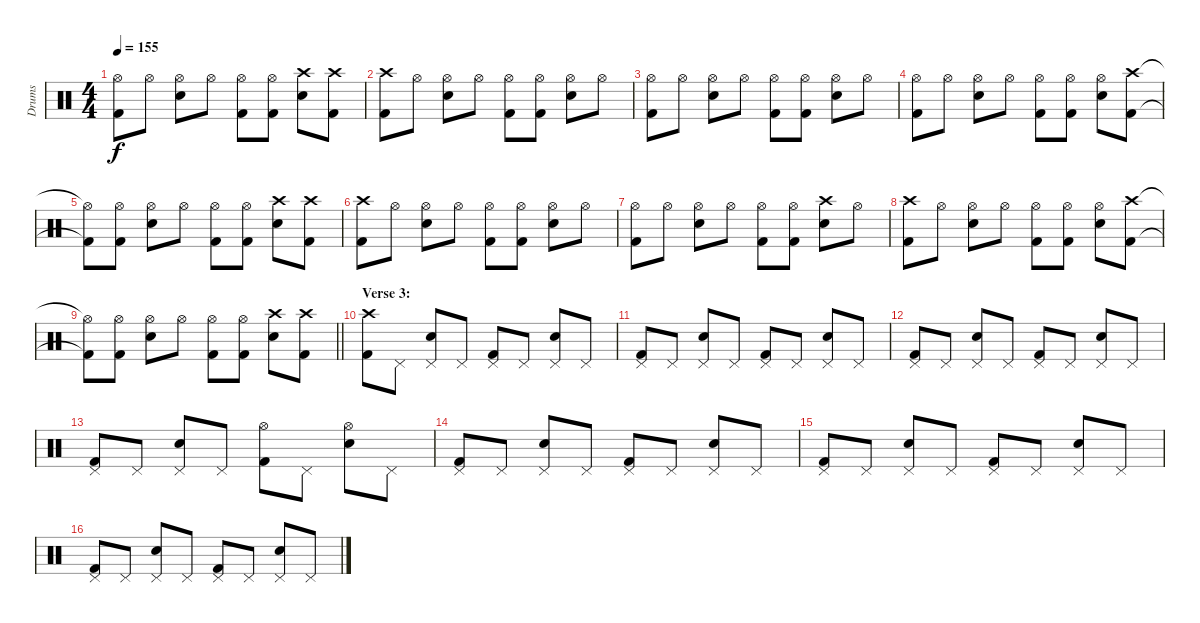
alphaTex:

\track ("Drums" "Drums") {instrument percussion}
\staff {score}
\articulation defaults
\ts (4 4)
\tempo 155
\clef neutral
\ks c
("Hi-Hat (open)" "Kick (hit) 2").8{dy f} "Hi-Hat (open)".8 ("Hi-Hat (open)" "Electric Snare (hit)").8 "Hi-Hat (open)".8 ("Hi-Hat (open)" "Kick (hit) 2").8 ("Hi-Hat (open)" "Kick (hit) 2").8 ("Crash high (hit)" "Electric Snare (hit)").8 ("Crash high (hit)" "Kick (hit) 2").8 |
("Crash high (hit)" "Kick (hit) 2").8 "Hi-Hat (open)".8 ("Hi-Hat (open)" "Electric Snare (hit)").8 "Hi-Hat (open)".8 ("Hi-Hat (open)" "Kick (hit) 2").8 ("Hi-Hat (open)" "Kick (hit) 2").8 ("Hi-Hat (open)" "Electric Snare (hit)").8 "Hi-Hat (open)".8 |
("Hi-Hat (open)" "Kick (hit) 2").8 "Hi-Hat (open)".8 ("Hi-Hat (open)" "Electric Snare (hit)").8 "Hi-Hat (open)".8 ("Hi-Hat (open)" "Kick (hit) 2").8 ("Hi-Hat (open)" "Kick (hit) 2").8 ("Hi-Hat (open)" "Electric Snare (hit)").8 "Hi-Hat (open)".8 |
("Hi-Hat (open)" "Kick (hit) 2").8 "Hi-Hat (open)".8 ("Hi-Hat (open)" "Electric Snare (hit)").8 "Hi-Hat (open)".8 ("Hi-Hat (open)" "Kick (hit) 2").8 ("Hi-Hat (open)" "Kick (hit) 2").8 ("Hi-Hat (open)" "Electric Snare (hit)").8 ("Crash high (hit)" "Kick (hit) 2").8 |
("Hi-Hat (open)"{t} "Kick (hit) 2"{t}).8 ("Hi-Hat (open)" "Kick (hit) 2").8 ("Hi-Hat (open)" "Electric Snare (hit)").8 "Hi-Hat (open)".8 ("Hi-Hat (open)" "Kick (hit) 2").8 ("Hi-Hat (open)" "Kick (hit) 2").8 ("Crash high (hit)" "Electric Snare (hit)").8 ("Crash high (hit)" "Kick (hit) 2").8 |
("Crash high (hit)" "Kick (hit) 2").8 "Hi-Hat (open)".8 ("Hi-Hat (open)" "Electric Snare (hit)").8 "Hi-Hat (open)".8 ("Hi-Hat (open)" "Kick (hit) 2").8 ("Hi-Hat (open)" "Kick (hit) 2").8 ("Hi-Hat (open)" "Electric Snare (hit)").8 "Hi-Hat (open)".8 |
("Hi-Hat (open)" "Kick (hit) 2").8 "Hi-Hat (open)".8 ("Hi-Hat (open)" "Electric Snare (hit)").8 "Hi-Hat (open)".8 ("Hi-Hat (open)" "Kick (hit) 2").8 ("Hi-Hat (open)" "Kick (hit) 2").8 ("Crash high (hit)" "Electric Snare (hit)").8 "Hi-Hat (open)".8 |
("Crash high (hit)" "Kick (hit) 2").8 "Hi-Hat (open)".8 ("Hi-Hat (open)" "Electric Snare (hit)").8 "Hi-Hat (open)".8 ("Hi-Hat (open)" "Kick (hit) 2").8 ("Hi-Hat (open)" "Kick (hit) 2").8 ("Hi-Hat (open)" "Electric Snare (hit)").8 ("Crash high (hit)" "Kick (hit) 2").8 |
\barLineRight lightlight
("Hi-Hat (open)"{t} "Kick (hit) 2"{t}).8 ("Hi-Hat (open)" "Kick (hit) 2").8 ("Hi-Hat (open)" "Electric Snare (hit)").8 "Hi-Hat (open)".8 ("Hi-Hat (open)" "Kick (hit) 2").8 ("Hi-Hat (open)" "Kick (hit) 2").8 ("Crash high (hit)" "Electric Snare (hit)").8 ("Crash high (hit)" "Kick (hit) 2").8 |
\section ("" "Verse 3:")
("Crash high (hit)" "Kick (hit) 2").8 "Pedal Hi-Hat (hit)".8 ("Pedal Hi-Hat (hit)" "Electric Snare (hit)").8 "Pedal Hi-Hat (hit)".8 ("Pedal Hi-Hat (hit)" "Kick (hit) 2").8 "Pedal Hi-Hat (hit)".8 ("Pedal Hi-Hat (hit)" "Electric Snare (hit)").8 "Pedal Hi-Hat (hit)".8 |
("Pedal Hi-Hat (hit)" "Kick (hit) 2").8 "Pedal Hi-Hat (hit)".8 ("Pedal Hi-Hat (hit)" "Electric Snare (hit)").8 "Pedal Hi-Hat (hit)".8 ("Pedal Hi-Hat (hit)" "Kick (hit) 2").8 "Pedal Hi-Hat (hit)".8 ("Pedal Hi-Hat (hit)" "Electric Snare (hit)").8 "Pedal Hi-Hat (hit)".8 |
("Pedal Hi-Hat (hit)" "Kick (hit) 2").8 "Pedal Hi-Hat (hit)".8 ("Pedal Hi-Hat (hit)" "Electric Snare (hit)").8 "Pedal Hi-Hat (hit)".8 ("Pedal Hi-Hat (hit)" "Kick (hit) 2").8 "Pedal Hi-Hat (hit)".8 ("Pedal Hi-Hat (hit)" "Electric Snare (hit)").8 "Pedal Hi-Hat (hit)".8 |
("Pedal Hi-Hat (hit)" "Kick (hit) 2").8 "Pedal Hi-Hat (hit)".8 ("Pedal Hi-Hat (hit)" "Electric Snare (hit)").8 "Pedal Hi-Hat (hit)".8 ("Hi-Hat (open)" "Kick (hit) 2").8 "Pedal Hi-Hat (hit)".8 ("Hi-Hat (open)" "Electric Snare (hit)").8 "Pedal Hi-Hat (hit)".8 |
("Pedal Hi-Hat (hit)" "Kick (hit) 2").8 "Pedal Hi-Hat (hit)".8 ("Pedal Hi-Hat (hit)" "Electric Snare (hit)").8 "Pedal Hi-Hat (hit)".8 ("Pedal Hi-Hat (hit)" "Kick (hit) 2").8 "Pedal Hi-Hat (hit)".8 ("Pedal Hi-Hat (hit)" "Electric Snare (hit)").8 "Pedal Hi-Hat (hit)".8 |
("Pedal Hi-Hat (hit)" "Kick (hit) 2").8 "Pedal Hi-Hat (hit)".8 ("Pedal Hi-Hat (hit)" "Electric Snare (hit)").8 "Pedal Hi-Hat (hit)".8 ("Pedal Hi-Hat (hit)" "Kick (hit) 2").8 "Pedal Hi-Hat (hit)".8 ("Pedal Hi-Hat (hit)" "Electric Snare (hit)").8 "Pedal Hi-Hat (hit)".8 |
("Pedal Hi-Hat (hit)" "Kick (hit) 2").8 "Pedal Hi-Hat (hit)".8 ("Pedal Hi-Hat (hit)" "Electric Snare (hit)").8 "Pedal Hi-Hat (hit)".8 ("Pedal Hi-Hat (hit)" "Kick (hit) 2").8 "Pedal Hi-Hat (hit)".8 ("Pedal Hi-Hat (hit)" "Electric Snare (hit)").8 "Pedal Hi-Hat (hit)".8
